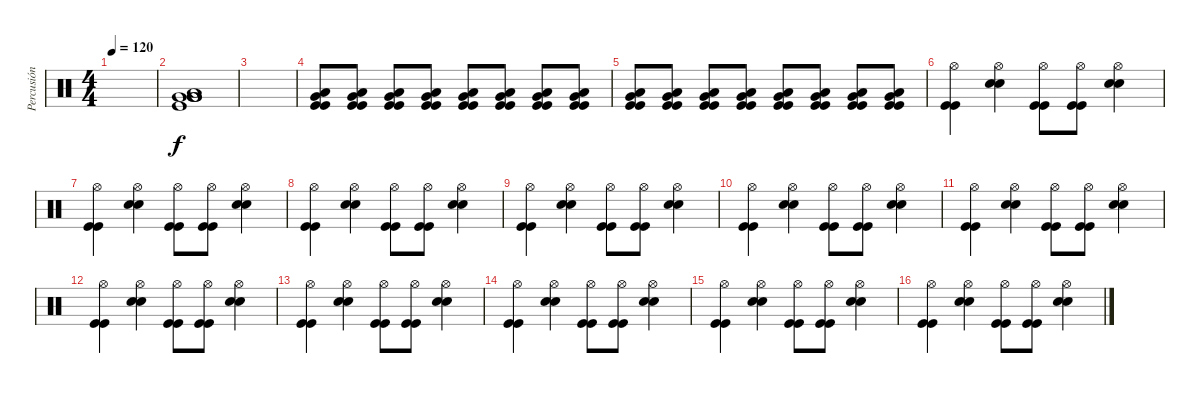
\track ("Percusión" "Percusión") {instrument percussion}
\staff {score}
\articulation defaults
\ts (4 4)
\tempo 120
\clef neutral
\ks c
|
("Very Low Tom (hit)" "Very Low Tom (hit)" "Kick (hit)" "Very Low Tom (hit)" "Very Low Tom (hit)" "Low Tom (hit)").1 |
|
("Very Low Tom (hit)" "Kick (hit)" "Low Tom (hit)" "Kick (hit)").8 ("Very Low Tom (hit)" "Kick (hit)" "Low Tom (hit)" "Kick (hit)").8 ("Very Low Tom (hit)" "Kick (hit)" "Low Tom (hit)" "Kick (hit)").8 ("Very Low Tom (hit)" "Kick (hit)" "Low Tom (hit)" "Kick (hit)").8 ("Very Low Tom (hit)" "Kick (hit)" "Low Tom (hit)" "Kick (hit)").8 ("Very Low Tom (hit)" "Kick (hit)" "Low Tom (hit)" "Kick (hit)").8 ("Very Low Tom (hit)" "Kick (hit)" "Low Tom (hit)" "Kick (hit)").8 ("Very Low Tom (hit)" "Kick (hit)" "Low Tom (hit)" "Kick (hit)").8 |
("Very Low Tom (hit)" "Kick (hit)" "Low Tom (hit)" "Kick (hit)").8 ("Very Low Tom (hit)" "Kick (hit)" "Low Tom (hit)" "Kick (hit)").8 ("Very Low Tom (hit)" "Kick (hit)" "Low Tom (hit)" "Kick (hit)").8 ("Very Low Tom (hit)" "Kick (hit)" "Low Tom (hit)" "Kick (hit)").8 ("Very Low Tom (hit)" "Kick (hit)" "Low Tom (hit)" "Kick (hit)").8 ("Very Low Tom (hit)" "Kick (hit)" "Low Tom (hit)" "Kick (hit)").8 ("Very Low Tom (hit)" "Kick (hit)" "Low Tom (hit)" "Kick (hit)").8 ("Very Low Tom (hit)" "Kick (hit)" "Low Tom (hit)" "Kick (hit)").8 |
("Kick (hit)" "Kick (hit)" "Hi-Hat (open)").4 ("Electric Snare (hit)" "Snare (hit) 2" "Hi-Hat (open)").4 ("Kick (hit)" "Kick (hit)" "Hi-Hat (open)").8 ("Kick (hit)" "Kick (hit)" "Hi-Hat (open)").8 ("Electric Snare (hit)" "Snare (hit) 2" "Hi-Hat (open)").4 |
("Kick (hit)" "Kick (hit)" "Hi-Hat (open)").4 ("Electric Snare (hit)" "Snare (hit) 2" "Hi-Hat (open)").4 ("Kick (hit)" "Kick (hit)" "Hi-Hat (open)").8 ("Kick (hit)" "Kick (hit)" "Hi-Hat (open)").8 ("Electric Snare (hit)" "Snare (hit) 2" "Hi-Hat (open)").4 |
("Kick (hit)" "Kick (hit)" "Hi-Hat (open)").4 ("Electric Snare (hit)" "Snare (hit) 2" "Hi-Hat (open)").4 ("Kick (hit)" "Kick (hit)" "Hi-Hat (open)").8 ("Kick (hit)" "Kick (hit)" "Hi-Hat (open)").8 ("Electric Snare (hit)" "Snare (hit) 2" "Hi-Hat (open)").4 |
("Kick (hit)" "Kick (hit)" "Hi-Hat (open)").4 ("Electric Snare (hit)" "Snare (hit) 2" "Hi-Hat (open)").4 ("Kick (hit)" "Kick (hit)" "Hi-Hat (open)").8 ("Kick (hit)" "Kick (hit)" "Hi-Hat (open)").8 ("Electric Snare (hit)" "Snare (hit) 2" "Hi-Hat (open)").4 |
("Kick (hit)" "Kick (hit)" "Hi-Hat (open)").4 ("Electric Snare (hit)" "Snare (hit) 2" "Hi-Hat (open)").4 ("Kick (hit)" "Kick (hit)" "Hi-Hat (open)").8 ("Kick (hit)" "Kick (hit)" "Hi-Hat (open)").8 ("Electric Snare (hit)" "Snare (hit) 2" "Hi-Hat (open)").4 |
("Kick (hit)" "Kick (hit)" "Hi-Hat (open)").4 ("Electric Snare (hit)" "Snare (hit) 2" "Hi-Hat (open)").4 ("Kick (hit)" "Kick (hit)" "Hi-Hat (open)").8 ("Kick (hit)" "Kick (hit)" "Hi-Hat (open)").8 ("Electric Snare (hit)" "Snare (hit) 2" "Hi-Hat (open)").4 |
("Kick (hit)" "Kick (hit)" "Hi-Hat (open)").4 ("Electric Snare (hit)" "Snare (hit) 2" "Hi-Hat (open)").4 ("Kick (hit)" "Kick (hit)" "Hi-Hat (open)").8 ("Kick (hit)" "Kick (hit)" "Hi-Hat (open)").8 ("Electric Snare (hit)" "Snare (hit) 2" "Hi-Hat (open)").4 |
("Kick (hit)" "Kick (hit)" "Hi-Hat (open)").4 ("Electric Snare (hit)" "Snare (hit) 2" "Hi-Hat (open)").4 ("Kick (hit)" "Kick (hit)" "Hi-Hat (open)").8 ("Kick (hit)" "Kick (hit)" "Hi-Hat (open)").8 ("Electric Snare (hit)" "Snare (hit) 2" "Hi-Hat (open)").4 |
("Kick (hit)" "Kick (hit)" "Hi-Hat (open)").4 ("Electric Snare (hit)" "Snare (hit) 2" "Hi-Hat (open)").4 ("Kick (hit)" "Kick (hit)" "Hi-Hat (open)").8 ("Kick (hit)" "Kick (hit)" "Hi-Hat (open)").8 ("Electric Snare (hit)" "Snare (hit) 2" "Hi-Hat (open)").4 |
("Kick (hit)" "Kick (hit)" "Hi-Hat (open)").4 ("Electric Snare (hit)" "Snare (hit) 2" "Hi-Hat (open)").4 ("Kick (hit)" "Kick (hit)" "Hi-Hat (open)").8 ("Kick (hit)" "Kick (hit)" "Hi-Hat (open)").8 ("Electric Snare (hit)" "Snare (hit) 2" "Hi-Hat (open)").4 |
("Kick (hit)" "Kick (hit)" "Hi-Hat (open)").4 ("Electric Snare (hit)" "Snare (hit) 2" "Hi-Hat (open)").4 ("Kick (hit)" "Kick (hit)" "Hi-Hat (open)").8 ("Kick (hit)" "Kick (hit)" "Hi-Hat (open)").8 ("Electric Snare (hit)" "Snare (hit) 2" "Hi-Hat (open)").4
